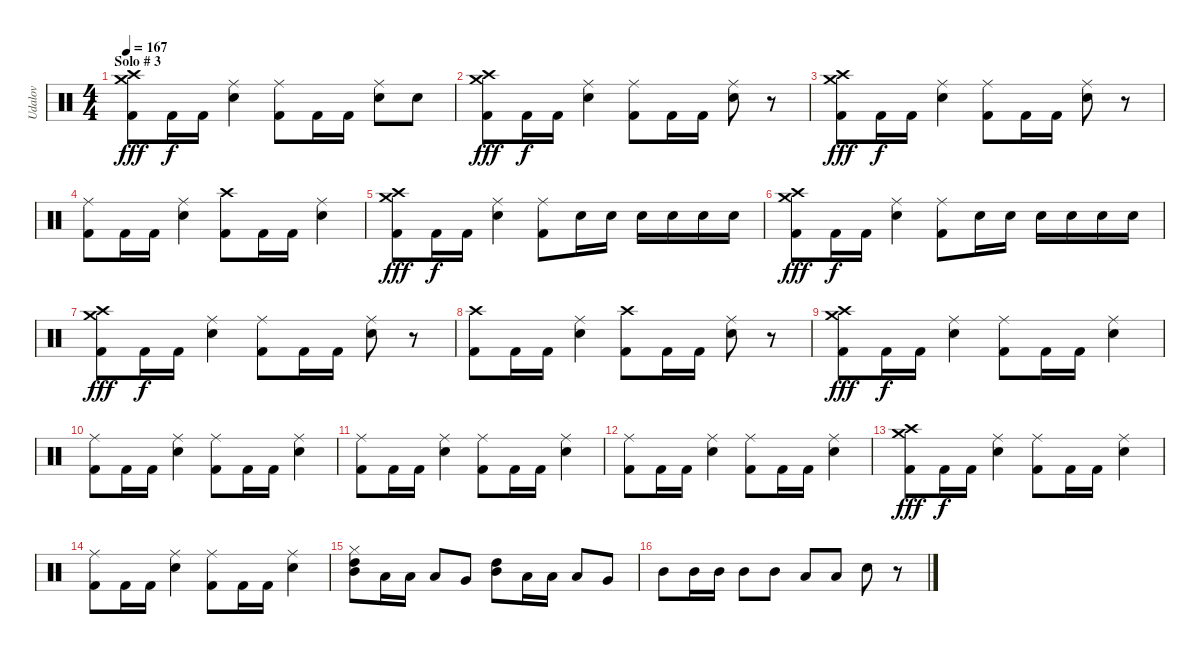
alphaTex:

\track ("Udalov" "Udalov") {instrument percussion}
\staff {score}
\articulation defaults
\ts (4 4)
\section ("" "Solo # 3")
\tempo 167
\clef neutral
\ks c
("Kick (hit) 2" "Crash high (hit)" "Crash medium (hit)").8{dy fff} "Kick (hit) 2".16{dy f} "Kick (hit) 2".16 ("Snare (hit) 2" "Ride (middle)").4 ("Kick (hit) 2" "Ride (middle)").8 "Kick (hit) 2".16 "Kick (hit) 2".16 ("Snare (hit) 2" "Ride (middle)").8 "Snare (hit) 2".8 |
("Kick (hit) 2" "Crash high (hit)" "Crash medium (hit)").8{dy fff} "Kick (hit) 2".16{dy f} "Kick (hit) 2".16 ("Snare (hit) 2" "Ride (middle)").4 ("Kick (hit) 2" "Ride (middle)").8 "Kick (hit) 2".16 "Kick (hit) 2".16 ("Snare (hit) 2" "Ride (middle)").8 r.8 |
("Kick (hit) 2" "Crash high (hit)" "Crash medium (hit)").8{dy fff} "Kick (hit) 2".16{dy f} "Kick (hit) 2".16 ("Snare (hit) 2" "Ride (middle)").4 ("Kick (hit) 2" "Ride (middle)").8 "Kick (hit) 2".16 "Kick (hit) 2".16 ("Snare (hit) 2" "Ride (middle)").8 r.8 |
("Kick (hit) 2" "Ride (middle)").8 "Kick (hit) 2".16 "Kick (hit) 2".16 ("Snare (hit) 2" "Ride (middle)").4 ("Kick (hit) 2" "Crash high (hit)").8 "Kick (hit) 2".16 "Kick (hit) 2".16 ("Snare (hit) 2" "Ride (middle)").4 |
("Kick (hit) 2" "Crash high (hit)" "Crash medium (hit)").8{dy fff} "Kick (hit) 2".16{dy f} "Kick (hit) 2".16 ("Snare (hit) 2" "Ride (middle)").4 ("Kick (hit) 2" "Ride (middle)").8 "Snare (hit) 2".16 "Snare (hit) 2".16 "Snare (hit) 2".16 "Snare (hit) 2".16 "Snare (hit) 2".16 "Snare (hit) 2".16 |
("Kick (hit) 2" "Crash high (hit)" "Crash medium (hit)").8{dy fff} "Kick (hit) 2".16{dy f} "Kick (hit) 2".16 ("Snare (hit) 2" "Ride (middle)").4 ("Kick (hit) 2" "Ride (middle)").8 "Snare (hit) 2".16 "Snare (hit) 2".16 "Snare (hit) 2".16 "Snare (hit) 2".16 "Snare (hit) 2".16 "Snare (hit) 2".16 |
("Kick (hit) 2" "Crash high (hit)" "Crash medium (hit)").8{dy fff} "Kick (hit) 2".16{dy f} "Kick (hit) 2".16 ("Snare (hit) 2" "Ride (middle)").4 ("Kick (hit) 2" "Ride (middle)").8 "Kick (hit) 2".16 "Kick (hit) 2".16 ("Snare (hit) 2" "Ride (middle)").8 r.8 |
("Kick (hit) 2" "Crash high (hit)").8 "Kick (hit) 2".16 "Kick (hit) 2".16 ("Snare (hit) 2" "Ride (middle)").4 ("Kick (hit) 2" "Crash high (hit)").8 "Kick (hit) 2".16 "Kick (hit) 2".16 ("Snare (hit) 2" "Ride (middle)").8 r.8 |
("Kick (hit) 2" "Crash high (hit)" "Crash medium (hit)").8{dy fff} "Kick (hit) 2".16{dy f} "Kick (hit) 2".16 ("Snare (hit) 2" "Ride (middle)").4 ("Kick (hit) 2" "Ride (middle)").8 "Kick (hit) 2".16 "Kick (hit) 2".16 ("Snare (hit) 2" "Ride (middle)").4 |
("Kick (hit) 2" "Ride (middle)").8 "Kick (hit) 2".16 "Kick (hit) 2".16 ("Snare (hit) 2" "Ride (middle)").4 ("Kick (hit) 2" "Ride (middle)").8 "Kick (hit) 2".16 "Kick (hit) 2".16 ("Snare (hit) 2" "Ride (middle)").4 |
("Kick (hit) 2" "Ride (middle)").8 "Kick (hit) 2".16 "Kick (hit) 2".16 ("Snare (hit) 2" "Ride (middle)").4 ("Kick (hit) 2" "Ride (middle)").8 "Kick (hit) 2".16 "Kick (hit) 2".16 ("Snare (hit) 2" "Ride (middle)").4 |
("Kick (hit) 2" "Ride (middle)").8 "Kick (hit) 2".16 "Kick (hit) 2".16 ("Snare (hit) 2" "Ride (middle)").4 ("Kick (hit) 2" "Ride (middle)").8 "Kick (hit) 2".16 "Kick (hit) 2".16 ("Snare (hit) 2" "Ride (middle)").4 |
("Kick (hit) 2" "Crash high (hit)" "Crash medium (hit)").8{dy fff} "Kick (hit) 2".16{dy f} "Kick (hit) 2".16 ("Snare (hit) 2" "Ride (middle)").4 ("Kick (hit) 2" "Ride (middle)").8 "Kick (hit) 2".16 "Kick (hit) 2".16 ("Snare (hit) 2" "Ride (middle)").4 |
("Kick (hit) 2" "Ride (middle)").8 "Kick (hit) 2".16 "Kick (hit) 2".16 ("Snare (hit) 2" "Ride (middle)").4 ("Kick (hit) 2" "Ride (middle)").8 "Kick (hit) 2".16 "Kick (hit) 2".16 ("Snare (hit) 2" "Ride (middle)").4 |
("Mid Tom (hit)" "High Tom (hit)" "Hi-Hat (closed)").8 "Low Tom (hit)".16 "Low Tom (hit)".16 "Low Tom (hit)".8 "Very Low Tom (hit)".8 ("Mid Tom (hit)" "High Tom (hit)").8 "Low Tom (hit)".16 "Low Tom (hit)".16 "Low Tom (hit)".8 "Very Low Tom (hit)".8 |
"Mid Tom (hit)".8 "Mid Tom (hit)".16 "Mid Tom (hit)".16 "Mid Tom (hit)".8 "Mid Tom (hit)".8 "Low Tom (hit)".8 "Low Tom (hit)".8 "Electric Snare (hit)".8 r.8
